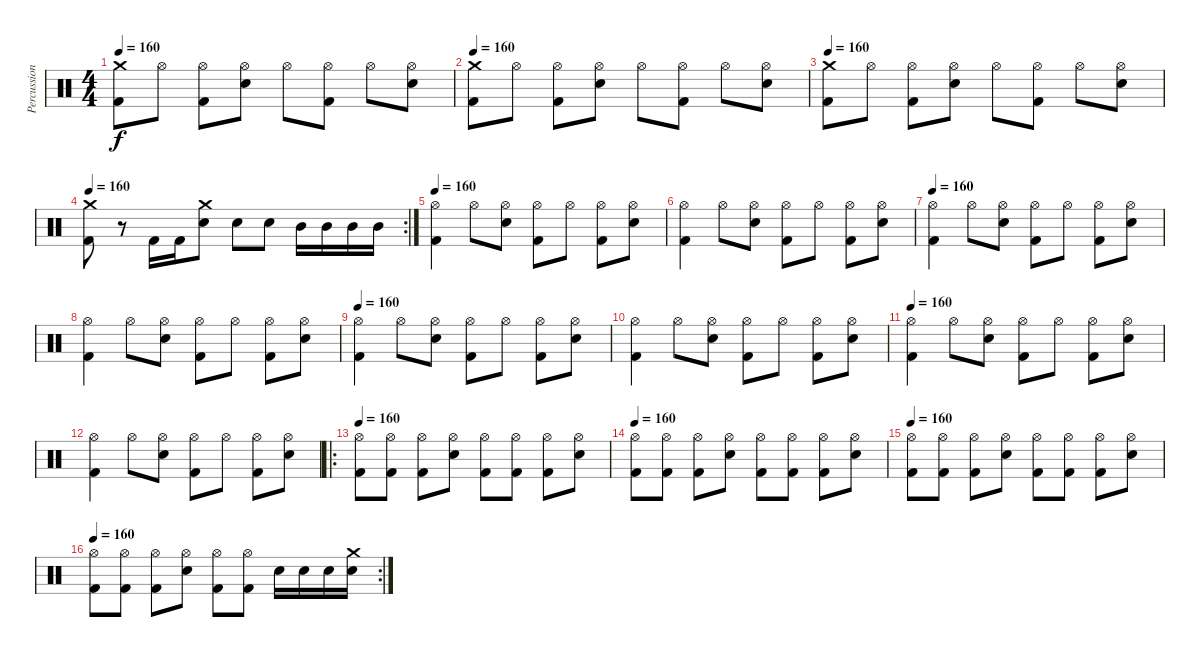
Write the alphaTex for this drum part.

\track ("Percussions" "Percussion") {instrument percussion}
\staff {score}
\articulation defaults
\ts (4 4)
\tempo 160
\clef neutral
\ks c
("Crash medium (hit)" "Kick (hit) 2").8{dy f} "Hi-Hat (open)".8 ("Hi-Hat (open)" "Kick (hit) 2").8 ("Hi-Hat (open)" "Electric Snare (hit)").8 "Hi-Hat (open)".8 ("Hi-Hat (open)" "Kick (hit) 2").8 "Hi-Hat (open)".8 ("Hi-Hat (open)" "Electric Snare (hit)").8 |
\tempo 160
("Crash medium (hit)" "Kick (hit) 2").8 "Hi-Hat (open)".8 ("Hi-Hat (open)" "Kick (hit) 2").8 ("Hi-Hat (open)" "Electric Snare (hit)").8 "Hi-Hat (open)".8 ("Hi-Hat (open)" "Kick (hit) 2").8 "Hi-Hat (open)".8 ("Hi-Hat (open)" "Electric Snare (hit)").8 |
\tempo 160
("Crash medium (hit)" "Kick (hit) 2").8 "Hi-Hat (open)".8 ("Hi-Hat (open)" "Kick (hit) 2").8 ("Hi-Hat (open)" "Electric Snare (hit)").8 "Hi-Hat (open)".8 ("Hi-Hat (open)" "Kick (hit) 2").8 "Hi-Hat (open)".8 ("Hi-Hat (open)" "Electric Snare (hit)").8 |
\rc 2
\tempo 160
("Crash medium (hit)" "Kick (hit) 2").8 r.8 "Kick (hit) 2".16 "Kick (hit) 2".16 ("Electric Snare (hit)" "Crash medium (hit)").8 "Snare (hit) 2".8 "Snare (hit) 2".8 "Mid Tom (hit)".16 "Mid Tom (hit)".16 "Mid Tom (hit)".16 "Mid Tom (hit)".16 |
\tempo 160
("Hi-Hat (open)" "Kick (hit) 2").4 "Hi-Hat (open)".8 ("Hi-Hat (open)" "Electric Snare (hit)").8 ("Hi-Hat (open)" "Kick (hit) 2").8 "Hi-Hat (open)".8 ("Hi-Hat (open)" "Kick (hit) 2").8 ("Hi-Hat (open)" "Electric Snare (hit)").8 |
("Hi-Hat (open)" "Kick (hit) 2").4 "Hi-Hat (open)".8 ("Hi-Hat (open)" "Electric Snare (hit)").8 ("Hi-Hat (open)" "Kick (hit) 2").8 "Hi-Hat (open)".8 ("Hi-Hat (open)" "Kick (hit) 2").8 ("Hi-Hat (open)" "Electric Snare (hit)").8 |
\tempo 160
("Hi-Hat (open)" "Kick (hit) 2").4 "Hi-Hat (open)".8 ("Hi-Hat (open)" "Electric Snare (hit)").8 ("Hi-Hat (open)" "Kick (hit) 2").8 "Hi-Hat (open)".8 ("Hi-Hat (open)" "Kick (hit) 2").8 ("Hi-Hat (open)" "Electric Snare (hit)").8 |
("Hi-Hat (open)" "Kick (hit) 2").4 "Hi-Hat (open)".8 ("Hi-Hat (open)" "Electric Snare (hit)").8 ("Hi-Hat (open)" "Kick (hit) 2").8 "Hi-Hat (open)".8 ("Hi-Hat (open)" "Kick (hit) 2").8 ("Hi-Hat (open)" "Electric Snare (hit)").8 |
\tempo 160
("Hi-Hat (open)" "Kick (hit) 2").4 "Hi-Hat (open)".8 ("Hi-Hat (open)" "Electric Snare (hit)").8 ("Hi-Hat (open)" "Kick (hit) 2").8 "Hi-Hat (open)".8 ("Hi-Hat (open)" "Kick (hit) 2").8 ("Hi-Hat (open)" "Electric Snare (hit)").8 |
("Hi-Hat (open)" "Kick (hit) 2").4 "Hi-Hat (open)".8 ("Hi-Hat (open)" "Electric Snare (hit)").8 ("Hi-Hat (open)" "Kick (hit) 2").8 "Hi-Hat (open)".8 ("Hi-Hat (open)" "Kick (hit) 2").8 ("Hi-Hat (open)" "Electric Snare (hit)").8 |
\tempo 160
("Hi-Hat (open)" "Kick (hit) 2").4 "Hi-Hat (open)".8 ("Hi-Hat (open)" "Electric Snare (hit)").8 ("Hi-Hat (open)" "Kick (hit) 2").8 "Hi-Hat (open)".8 ("Hi-Hat (open)" "Kick (hit) 2").8 ("Hi-Hat (open)" "Electric Snare (hit)").8 |
("Hi-Hat (open)" "Kick (hit) 2").4 "Hi-Hat (open)".8 ("Hi-Hat (open)" "Electric Snare (hit)").8 ("Hi-Hat (open)" "Kick (hit) 2").8 "Hi-Hat (open)".8 ("Hi-Hat (open)" "Kick (hit) 2").8 ("Hi-Hat (open)" "Electric Snare (hit)").8 |
\ro
\tempo 160
("Hi-Hat (open)" "Kick (hit) 2").8 ("Hi-Hat (open)" "Kick (hit) 2").8 ("Hi-Hat (open)" "Kick (hit) 2").8 ("Hi-Hat (open)" "Electric Snare (hit)").8 ("Hi-Hat (open)" "Kick (hit) 2").8 ("Hi-Hat (open)" "Kick (hit) 2").8 ("Hi-Hat (open)" "Kick (hit) 2").8 ("Hi-Hat (open)" "Electric Snare (hit)").8 |
\tempo 160
("Hi-Hat (open)" "Kick (hit) 2").8 ("Hi-Hat (open)" "Kick (hit) 2").8 ("Hi-Hat (open)" "Kick (hit) 2").8 ("Hi-Hat (open)" "Electric Snare (hit)").8 ("Hi-Hat (open)" "Kick (hit) 2").8 ("Hi-Hat (open)" "Kick (hit) 2").8 ("Hi-Hat (open)" "Kick (hit) 2").8 ("Hi-Hat (open)" "Electric Snare (hit)").8 |
\tempo 160
("Hi-Hat (open)" "Kick (hit) 2").8 ("Hi-Hat (open)" "Kick (hit) 2").8 ("Hi-Hat (open)" "Kick (hit) 2").8 ("Hi-Hat (open)" "Electric Snare (hit)").8 ("Hi-Hat (open)" "Kick (hit) 2").8 ("Hi-Hat (open)" "Kick (hit) 2").8 ("Hi-Hat (open)" "Kick (hit) 2").8 ("Hi-Hat (open)" "Electric Snare (hit)").8 |
\rc 2
\tempo 160
("Hi-Hat (open)" "Kick (hit) 2").8 ("Hi-Hat (open)" "Kick (hit) 2").8 ("Hi-Hat (open)" "Kick (hit) 2").8 ("Hi-Hat (open)" "Electric Snare (hit)").8 ("Hi-Hat (open)" "Kick (hit) 2").8 ("Hi-Hat (open)" "Kick (hit) 2").8 "Electric Snare (hit)".16 "Electric Snare (hit)".16 "Snare (hit) 2".16 ("Snare (hit) 2" "Crash medium (hit)").16
